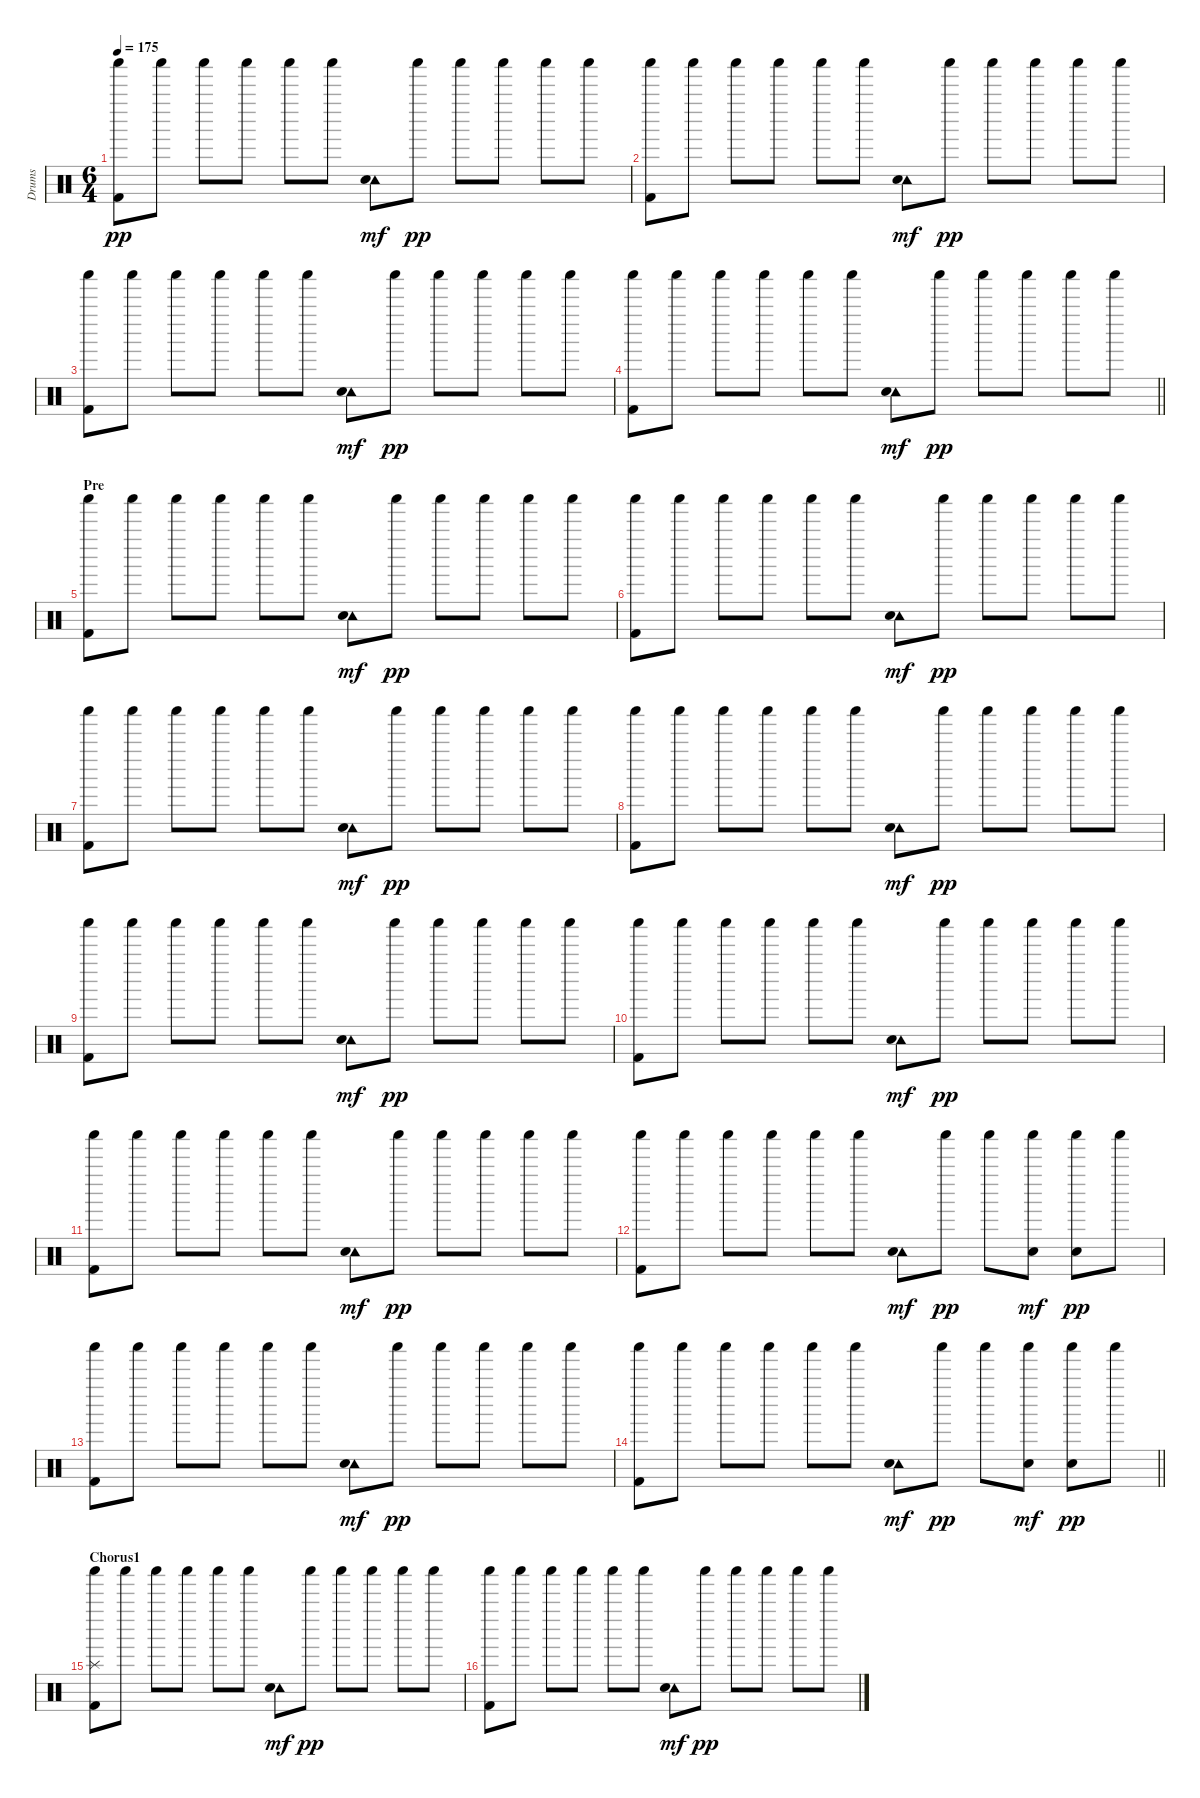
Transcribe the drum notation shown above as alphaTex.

\track ("Drums" "Drums") {instrument percussion}
\staff {score}
\articulation defaults
\ts (6 4)
\tempo 175
\clef neutral
\ks c
("Shaker (hit)" "Kick (hit) 2").8{dy pp} "Shaker (hit)".8 "Shaker (hit)".8 "Shaker (hit)".8 "Shaker (hit)".8 "Shaker (hit)".8 ("Tambourine (hit)" "Snare (hit) 2").8{dy mf} "Shaker (hit)".8{dy pp} "Shaker (hit)".8 "Shaker (hit)".8 "Shaker (hit)".8 "Shaker (hit)".8 |
("Shaker (hit)" "Kick (hit) 2").8 "Shaker (hit)".8 "Shaker (hit)".8 "Shaker (hit)".8 "Shaker (hit)".8 "Shaker (hit)".8 ("Tambourine (hit)" "Snare (hit) 2").8{dy mf} "Shaker (hit)".8{dy pp} "Shaker (hit)".8 "Shaker (hit)".8 "Shaker (hit)".8 "Shaker (hit)".8 |
("Shaker (hit)" "Kick (hit) 2").8 "Shaker (hit)".8 "Shaker (hit)".8 "Shaker (hit)".8 "Shaker (hit)".8 "Shaker (hit)".8 ("Tambourine (hit)" "Snare (hit) 2").8{dy mf} "Shaker (hit)".8{dy pp} "Shaker (hit)".8 "Shaker (hit)".8 "Shaker (hit)".8 "Shaker (hit)".8 |
\barLineRight lightlight
("Shaker (hit)" "Kick (hit) 2").8 "Shaker (hit)".8 "Shaker (hit)".8 "Shaker (hit)".8 "Shaker (hit)".8 "Shaker (hit)".8 ("Tambourine (hit)" "Snare (hit) 2").8{dy mf} "Shaker (hit)".8{dy pp} "Shaker (hit)".8 "Shaker (hit)".8 "Shaker (hit)".8 "Shaker (hit)".8 |
\section ("" "Pre")
("Shaker (hit)" "Kick (hit) 2").8 "Shaker (hit)".8 "Shaker (hit)".8 "Shaker (hit)".8 "Shaker (hit)".8 "Shaker (hit)".8 ("Tambourine (hit)" "Snare (hit) 2").8{dy mf} "Shaker (hit)".8{dy pp} "Shaker (hit)".8 "Shaker (hit)".8 "Shaker (hit)".8 "Shaker (hit)".8 |
("Shaker (hit)" "Kick (hit) 2").8 "Shaker (hit)".8 "Shaker (hit)".8 "Shaker (hit)".8 "Shaker (hit)".8 "Shaker (hit)".8 ("Tambourine (hit)" "Snare (hit) 2").8{dy mf} "Shaker (hit)".8{dy pp} "Shaker (hit)".8 "Shaker (hit)".8 "Shaker (hit)".8 "Shaker (hit)".8 |
("Shaker (hit)" "Kick (hit) 2").8 "Shaker (hit)".8 "Shaker (hit)".8 "Shaker (hit)".8 "Shaker (hit)".8 "Shaker (hit)".8 ("Tambourine (hit)" "Snare (hit) 2").8{dy mf} "Shaker (hit)".8{dy pp} "Shaker (hit)".8 "Shaker (hit)".8 "Shaker (hit)".8 "Shaker (hit)".8 |
("Shaker (hit)" "Kick (hit) 2").8 "Shaker (hit)".8 "Shaker (hit)".8 "Shaker (hit)".8 "Shaker (hit)".8 "Shaker (hit)".8 ("Tambourine (hit)" "Snare (hit) 2").8{dy mf} "Shaker (hit)".8{dy pp} "Shaker (hit)".8 "Shaker (hit)".8 "Shaker (hit)".8 "Shaker (hit)".8 |
("Shaker (hit)" "Kick (hit) 2").8 "Shaker (hit)".8 "Shaker (hit)".8 "Shaker (hit)".8 "Shaker (hit)".8 "Shaker (hit)".8 ("Tambourine (hit)" "Snare (hit) 2").8{dy mf} "Shaker (hit)".8{dy pp} "Shaker (hit)".8 "Shaker (hit)".8 "Shaker (hit)".8 "Shaker (hit)".8 |
("Shaker (hit)" "Kick (hit) 2").8 "Shaker (hit)".8 "Shaker (hit)".8 "Shaker (hit)".8 "Shaker (hit)".8 "Shaker (hit)".8 ("Tambourine (hit)" "Snare (hit) 2").8{dy mf} "Shaker (hit)".8{dy pp} "Shaker (hit)".8 "Shaker (hit)".8 "Shaker (hit)".8 "Shaker (hit)".8 |
("Shaker (hit)" "Kick (hit) 2").8 "Shaker (hit)".8 "Shaker (hit)".8 "Shaker (hit)".8 "Shaker (hit)".8 "Shaker (hit)".8 ("Tambourine (hit)" "Snare (hit) 2").8{dy mf} "Shaker (hit)".8{dy pp} "Shaker (hit)".8 "Shaker (hit)".8 "Shaker (hit)".8 "Shaker (hit)".8 |
("Shaker (hit)" "Kick (hit) 2").8 "Shaker (hit)".8 "Shaker (hit)".8 "Shaker (hit)".8 "Shaker (hit)".8 "Shaker (hit)".8 ("Tambourine (hit)" "Snare (hit) 2").8{dy mf} "Shaker (hit)".8{dy pp} "Shaker (hit)".8 ("Shaker (hit)" "Snare (hit) 2").8{dy mf} ("Shaker (hit)" "Snare (hit) 2").8{dy pp} "Shaker (hit)".8 |
("Shaker (hit)" "Kick (hit) 2").8 "Shaker (hit)".8 "Shaker (hit)".8 "Shaker (hit)".8 "Shaker (hit)".8 "Shaker (hit)".8 ("Tambourine (hit)" "Snare (hit) 2").8{dy mf} "Shaker (hit)".8{dy pp} "Shaker (hit)".8 "Shaker (hit)".8 "Shaker (hit)".8 "Shaker (hit)".8 |
\barLineRight lightlight
("Shaker (hit)" "Kick (hit) 2").8 "Shaker (hit)".8 "Shaker (hit)".8 "Shaker (hit)".8 "Shaker (hit)".8 "Shaker (hit)".8 ("Tambourine (hit)" "Snare (hit) 2").8{dy mf} "Shaker (hit)".8{dy pp} "Shaker (hit)".8 ("Shaker (hit)" "Snare (hit) 2").8{dy mf} ("Shaker (hit)" "Snare (hit) 2").8{dy pp} "Shaker (hit)".8 |
\section ("" "Chorus1")
("Splash (hit)" "Shaker (hit)" "Kick (hit) 2").8 "Shaker (hit)".8 "Shaker (hit)".8 "Shaker (hit)".8 "Shaker (hit)".8 "Shaker (hit)".8 ("Tambourine (hit)" "Snare (hit) 2").8{dy mf} "Shaker (hit)".8{dy pp} "Shaker (hit)".8 "Shaker (hit)".8 "Shaker (hit)".8 "Shaker (hit)".8 |
("Shaker (hit)" "Kick (hit) 2").8 "Shaker (hit)".8 "Shaker (hit)".8 "Shaker (hit)".8 "Shaker (hit)".8 "Shaker (hit)".8 ("Tambourine (hit)" "Snare (hit) 2").8{dy mf} "Shaker (hit)".8{dy pp} "Shaker (hit)".8 "Shaker (hit)".8 "Shaker (hit)".8 "Shaker (hit)".8
